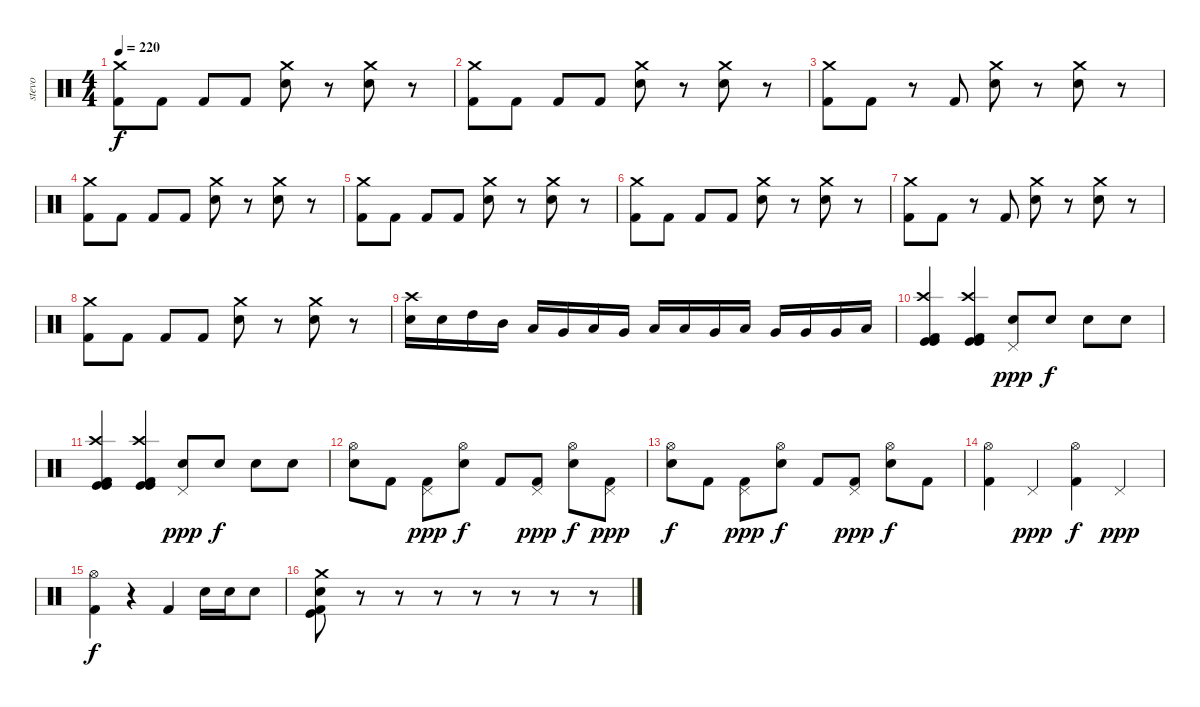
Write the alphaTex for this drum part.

\track ("stevo" "stevo") {instrument percussion}
\staff {score}
\articulation defaults
\ts (4 4)
\tempo 220
\clef neutral
\ks c
("Crash medium (hit)" "Kick (hit) 2").8{dy f} "Kick (hit) 2".8 "Kick (hit) 2".8 "Kick (hit) 2".8 ("Crash medium (hit)" "Electric Snare (hit)").8 r.8 ("Crash medium (hit)" "Electric Snare (hit)").8 r.8 |
("Crash medium (hit)" "Kick (hit) 2").8 "Kick (hit) 2".8 "Kick (hit) 2".8 "Kick (hit) 2".8 ("Crash medium (hit)" "Electric Snare (hit)").8 r.8 ("Crash medium (hit)" "Electric Snare (hit)").8 r.8 |
("Crash medium (hit)" "Kick (hit) 2").8 "Kick (hit) 2".8 r.8 "Kick (hit) 2".8 ("Crash medium (hit)" "Electric Snare (hit)").8 r.8 ("Crash medium (hit)" "Electric Snare (hit)").8 r.8 |
("Crash medium (hit)" "Kick (hit) 2").8 "Kick (hit) 2".8 "Kick (hit) 2".8 "Kick (hit) 2".8 ("Crash medium (hit)" "Electric Snare (hit)").8 r.8 ("Crash medium (hit)" "Electric Snare (hit)").8 r.8 |
("Crash medium (hit)" "Kick (hit) 2").8 "Kick (hit) 2".8 "Kick (hit) 2".8 "Kick (hit) 2".8 ("Crash medium (hit)" "Electric Snare (hit)").8 r.8 ("Crash medium (hit)" "Electric Snare (hit)").8 r.8 |
("Crash medium (hit)" "Kick (hit) 2").8 "Kick (hit) 2".8 "Kick (hit) 2".8 "Kick (hit) 2".8 ("Crash medium (hit)" "Electric Snare (hit)").8 r.8 ("Crash medium (hit)" "Electric Snare (hit)").8 r.8 |
("Crash medium (hit)" "Kick (hit) 2").8 "Kick (hit) 2".8 r.8 "Kick (hit) 2".8 ("Crash medium (hit)" "Electric Snare (hit)").8 r.8 ("Crash medium (hit)" "Electric Snare (hit)").8 r.8 |
("Crash medium (hit)" "Kick (hit) 2").8 "Kick (hit) 2".8 "Kick (hit) 2".8 "Kick (hit) 2".8 ("Crash medium (hit)" "Electric Snare (hit)").8 r.8 ("Crash medium (hit)" "Electric Snare (hit)").8 r.8 |
("Crash high (hit)" "Electric Snare (hit)").16 "Electric Snare (hit)".16 "High Tom (hit)".16 "Mid Tom (hit)".16 "Low Tom (hit)".16 "Very Low Tom (hit)".16 "Low Floor Tom (hit)".16 "Very Low Tom (hit)".16 "Low Floor Tom (hit)".16 "Low Floor Tom (hit)".16 "Very Low Tom (hit)".16 "Low Floor Tom (hit)".16 "Very Low Tom (hit)".16 "Very Low Tom (hit)".16 "Very Low Tom (hit)".16 "Low Tom (hit)".16 |
("Crash high (hit)" "Kick (hit)" "Kick (hit) 2" "Kick (hit)").4 ("Crash high (hit)" "Kick (hit)" "Kick (hit) 2" "Kick (hit)").4 ("Pedal Hi-Hat (hit)" "Electric Snare (hit)").8{dy ppp} "Electric Snare (hit)".8{dy f} "Electric Snare (hit)".8 "Electric Snare (hit)".8 |
("Crash high (hit)" "Kick (hit)" "Kick (hit) 2" "Kick (hit)").4 ("Crash high (hit)" "Kick (hit)" "Kick (hit) 2" "Kick (hit)").4 ("Pedal Hi-Hat (hit)" "Electric Snare (hit)").8{dy ppp} "Electric Snare (hit)".8{dy f} "Electric Snare (hit)".8 "Electric Snare (hit)".8 |
("Hi-Hat (open)" "Electric Snare (hit)").8 "Kick (hit) 2".8 ("Pedal Hi-Hat (hit)" "Kick (hit) 2").8{dy ppp} ("Hi-Hat (open)" "Electric Snare (hit)").8{dy f} "Kick (hit) 2".8 ("Pedal Hi-Hat (hit)" "Kick (hit) 2").8{dy ppp} ("Hi-Hat (open)" "Electric Snare (hit)").8{dy f} ("Pedal Hi-Hat (hit)" "Kick (hit) 2").8{dy ppp} |
("Hi-Hat (open)" "Electric Snare (hit)").8{dy f} "Kick (hit) 2".8 ("Pedal Hi-Hat (hit)" "Kick (hit) 2").8{dy ppp} ("Hi-Hat (open)" "Electric Snare (hit)").8{dy f} "Kick (hit) 2".8 ("Pedal Hi-Hat (hit)" "Kick (hit) 2").8{dy ppp} ("Hi-Hat (open)" "Electric Snare (hit)").8{dy f} "Kick (hit) 2".8 |
("Hi-Hat (open)" "Kick (hit) 2").4 "Pedal Hi-Hat (hit)".4{dy ppp} ("Hi-Hat (open)" "Kick (hit) 2").4{dy f} "Pedal Hi-Hat (hit)".4{dy ppp} |
("Hi-Hat (open)" "Kick (hit) 2").4{dy f} r.4 "Kick (hit) 2".4 "Electric Snare (hit)".16 "Electric Snare (hit)".16 "Electric Snare (hit)".8 |
("Crash medium (hit)" "Electric Snare (hit)" "Kick (hit)" "Kick (hit) 2").8 r.8 r.8 r.8 r.8 r.8 r.8 r.8
